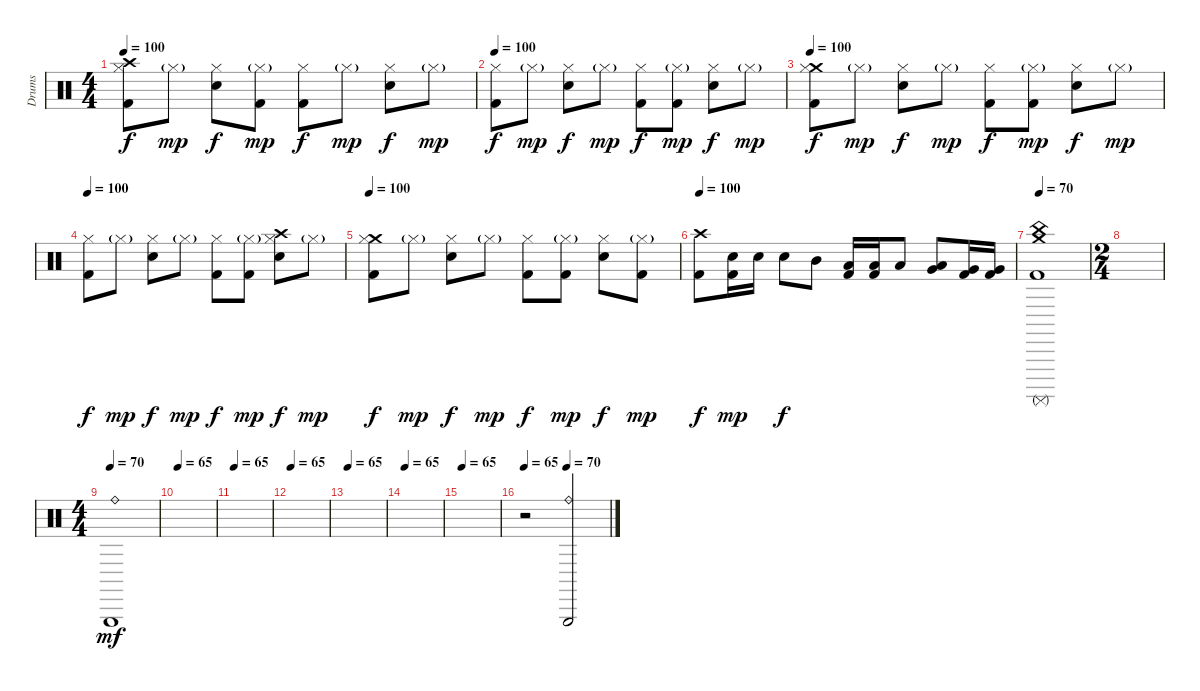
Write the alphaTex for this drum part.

\track ("Drums" "Drums") {instrument percussion}
\staff {score}
\articulation defaults
\ts (4 4)
\tempo 100
\clef neutral
\ks c
("Crash high (hit)" "Hi-Hat (closed)" "Kick (hit) 2").8{dy f} "Hi-Hat (closed)"{g}.8{dy mp} ("Electric Snare (hit)" "Hi-Hat (closed)").8{dy f} ("Hi-Hat (closed)"{g} "Kick (hit) 2").8{dy mp} ("Hi-Hat (closed)" "Kick (hit) 2").8{dy f} "Hi-Hat (closed)"{g}.8{dy mp} ("Electric Snare (hit)" "Hi-Hat (closed)").8{dy f} "Hi-Hat (closed)"{g}.8{dy mp} |
\tempo 100
("Hi-Hat (closed)" "Kick (hit) 2").8{dy f} "Hi-Hat (closed)"{g}.8{dy mp} ("Electric Snare (hit)" "Hi-Hat (closed)").8{dy f} "Hi-Hat (closed)"{g}.8{dy mp} ("Hi-Hat (closed)" "Kick (hit) 2").8{dy f} ("Hi-Hat (closed)"{g} "Kick (hit) 2").8{dy mp} ("Electric Snare (hit)" "Hi-Hat (closed)").8{dy f} "Hi-Hat (closed)"{g}.8{dy mp} |
\tempo 100
("Crash medium (hit)" "Hi-Hat (closed)" "Kick (hit) 2").8{dy f} "Hi-Hat (closed)"{g}.8{dy mp} ("Electric Snare (hit)" "Hi-Hat (closed)").8{dy f} "Hi-Hat (closed)"{g}.8{dy mp} ("Hi-Hat (closed)" "Kick (hit) 2").8{dy f} ("Hi-Hat (closed)"{g} "Kick (hit) 2").8{dy mp} ("Electric Snare (hit)" "Hi-Hat (closed)").8{dy f} "Hi-Hat (closed)"{g}.8{dy mp} |
\tempo 100
("Hi-Hat (closed)" "Kick (hit) 2").8{dy f} "Hi-Hat (closed)"{g}.8{dy mp} ("Electric Snare (hit)" "Hi-Hat (closed)").8{dy f} "Hi-Hat (closed)"{g}.8{dy mp} ("Hi-Hat (closed)" "Kick (hit) 2").8{dy f} ("Hi-Hat (closed)"{g} "Kick (hit) 2").8{dy mp} ("Crash high (hit)" "Electric Snare (hit)" "Hi-Hat (closed)").8{dy f} "Hi-Hat (closed)"{g}.8{dy mp} |
\tempo 100
("Crash medium (hit)" "Hi-Hat (closed)" "Kick (hit) 2").8{dy f} "Hi-Hat (closed)"{g}.8{dy mp} ("Electric Snare (hit)" "Hi-Hat (closed)").8{dy f} "Hi-Hat (closed)"{g}.8{dy mp} ("Hi-Hat (closed)" "Kick (hit) 2").8{dy f} ("Hi-Hat (closed)"{g} "Kick (hit) 2").8{dy mp} ("Electric Snare (hit)" "Hi-Hat (closed)").8{dy f} ("Hi-Hat (closed)"{g} "Kick (hit) 2").8{dy mp} |
\tempo 100
("Crash high (hit)" "Kick (hit) 2").8{dy f} ("Electric Snare (hit)" "Kick (hit) 2").16{dy mp} "Electric Snare (hit)".16 "Electric Snare (hit)".8{dy f} "Mid Tom (hit)".8 ("Low Tom (hit)" "Kick (hit) 2").16 ("Low Tom (hit)" "Kick (hit) 2").16 "Low Tom (hit)".8 ("Low Tom (hit)" "Very Low Tom (hit)").8 ("Very Low Tom (hit)" "Kick (hit) 2").16 ("Very Low Tom (hit)" "Kick (hit) 2").16 |
\tempo 70
("Crash medium (hit)" "China (hit)" "Surdo (mute)" "Kick (hit) 2").1 |
\ts (2 4)
|
\ts (4 4)
\tempo 70
("Ride (bell)" "Triangle (hit)").1{dy mf} |
\tempo 65
|
\tempo 65
|
\tempo 65
|
\tempo 65
|
\tempo 65
|
\tempo 65
|
\tempo 65
\tempo (70 0.5)
r.2 ("Ride (bell)" "Triangle (hit)").2
